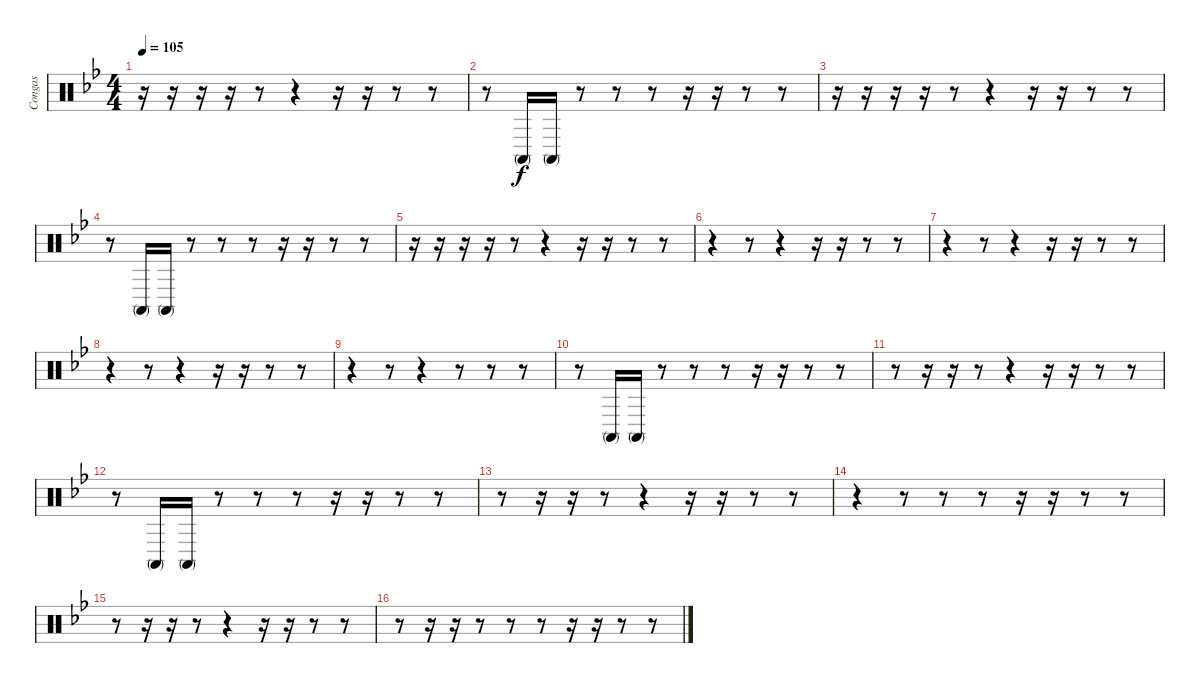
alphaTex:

\track ("Congas" "Congas") {instrument percussion}
\staff {score}
\articulation defaults
\ts (4 4)
\tempo 105
\clef neutral
\ks gminor
r.16{dy f} r.16 r.16 r.16 r.8 r.4 r.16 r.16 r.8 r.8 |
r.8 "Conga high (mute)".16 "Conga high (mute)".16 r.8 r.8 r.8 r.16 r.16 r.8 r.8 |
r.16 r.16 r.16 r.16 r.8 r.4 r.16 r.16 r.8 r.8 |
r.8 "Conga high (mute)".16 "Conga high (mute)".16 r.8 r.8 r.8 r.16 r.16 r.8 r.8 |
r.16 r.16 r.16 r.16 r.8 r.4 r.16 r.16 r.8 r.8 |
r.4 r.8 r.4 r.16 r.16 r.8 r.8 |
r.4 r.8 r.4 r.16 r.16 r.8 r.8 |
r.4 r.8 r.4 r.16 r.16 r.8 r.8 |
r.4 r.8 r.4 r.8 r.8 r.8 |
r.8 "Conga high (mute)".16 "Conga high (mute)".16 r.8 r.8 r.8 r.16 r.16 r.8 r.8 |
r.8 r.16 r.16 r.8 r.4 r.16 r.16 r.8 r.8 |
r.8 "Conga high (mute)".16 "Conga high (mute)".16 r.8 r.8 r.8 r.16 r.16 r.8 r.8 |
r.8 r.16 r.16 r.8 r.4 r.16 r.16 r.8 r.8 |
r.4 r.8 r.8 r.8 r.16 r.16 r.8 r.8 |
r.8 r.16 r.16 r.8 r.4 r.16 r.16 r.8 r.8 |
r.8 r.16 r.16 r.8 r.8 r.8 r.16 r.16 r.8 r.8
